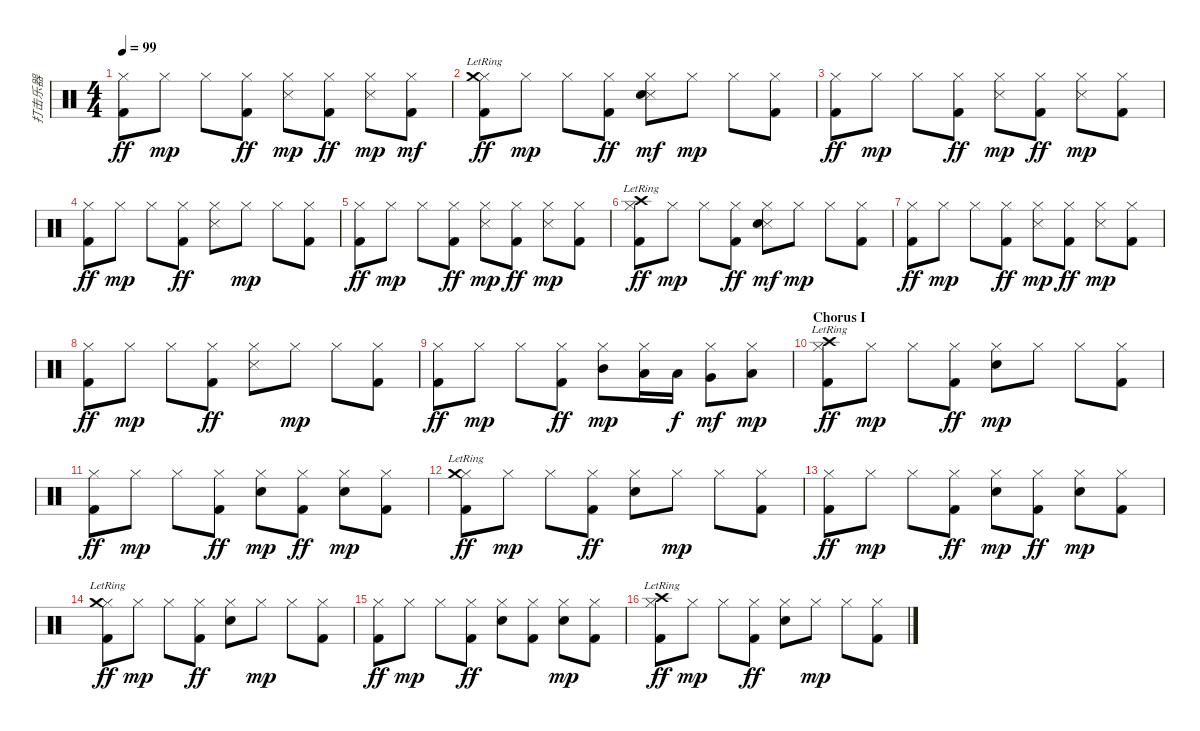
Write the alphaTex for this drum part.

\track ("打击乐器" "打击乐器") {instrument percussion}
\staff {score}
\articulation defaults
\ts (4 4)
\tempo 99
\clef neutral
\ks c
("Hi-Hat (closed)" "Kick (hit) 2").8{dy ff} "Hi-Hat (closed)".8{dy mp} "Hi-Hat (closed)".8 ("Hi-Hat (closed)" "Kick (hit) 2").8{dy ff} ("Hi-Hat (closed)" "Snare (side stick) 3").8{dy mp} ("Hi-Hat (closed)" "Kick (hit) 2").8{dy ff} ("Hi-Hat (closed)" "Snare (side stick) 3").8{dy mp} ("Hi-Hat (closed)" "Kick (hit) 2").8{dy mf} |
("Hi-Hat (closed)" "Crash medium (hit)"{lr} "Kick (hit) 2").8{dy ff} "Hi-Hat (closed)".8{dy mp} "Hi-Hat (closed)".8 ("Hi-Hat (closed)" "Kick (hit) 2").8{dy ff} ("Hi-Hat (closed)" "Snare (side stick) 3" "Electric Snare (hit)").8{dy mf} "Hi-Hat (closed)".8{dy mp} "Hi-Hat (closed)".8 ("Hi-Hat (closed)" "Kick (hit) 2").8 |
("Hi-Hat (closed)" "Kick (hit) 2").8{dy ff} "Hi-Hat (closed)".8{dy mp} "Hi-Hat (closed)".8 ("Hi-Hat (closed)" "Kick (hit) 2").8{dy ff} ("Hi-Hat (closed)" "Snare (side stick) 3").8{dy mp} ("Hi-Hat (closed)" "Kick (hit) 2").8{dy ff} ("Hi-Hat (closed)" "Snare (side stick) 3").8{dy mp} ("Hi-Hat (closed)" "Kick (hit) 2").8 |
("Hi-Hat (closed)" "Kick (hit) 2").8{dy ff} "Hi-Hat (closed)".8{dy mp} "Hi-Hat (closed)".8 ("Hi-Hat (closed)" "Kick (hit) 2").8{dy ff} ("Hi-Hat (closed)" "Snare (side stick) 3").8 "Hi-Hat (closed)".8{dy mp} "Hi-Hat (closed)".8 ("Hi-Hat (closed)" "Kick (hit) 2").8 |
("Hi-Hat (closed)" "Kick (hit) 2").8{dy ff} "Hi-Hat (closed)".8{dy mp} "Hi-Hat (closed)".8 ("Hi-Hat (closed)" "Kick (hit) 2").8{dy ff} ("Hi-Hat (closed)" "Snare (side stick) 3").8{dy mp} ("Hi-Hat (closed)" "Kick (hit) 2").8{dy ff} ("Hi-Hat (closed)" "Snare (side stick) 3").8{dy mp} ("Hi-Hat (closed)" "Kick (hit) 2").8 |
("Hi-Hat (closed)" "Crash high (hit)"{lr} "Kick (hit) 2").8{dy ff} "Hi-Hat (closed)".8{dy mp} "Hi-Hat (closed)".8 ("Hi-Hat (closed)" "Kick (hit) 2").8{dy ff} ("Hi-Hat (closed)" "Snare (side stick) 3" "Electric Snare (hit)").8{dy mf} "Hi-Hat (closed)".8{dy mp} "Hi-Hat (closed)".8 ("Hi-Hat (closed)" "Kick (hit) 2").8 |
("Hi-Hat (closed)" "Kick (hit) 2").8{dy ff} "Hi-Hat (closed)".8{dy mp} "Hi-Hat (closed)".8 ("Hi-Hat (closed)" "Kick (hit) 2").8{dy ff} ("Hi-Hat (closed)" "Snare (side stick) 3").8{dy mp} ("Hi-Hat (closed)" "Kick (hit) 2").8{dy ff} ("Hi-Hat (closed)" "Snare (side stick) 3").8{dy mp} ("Hi-Hat (closed)" "Kick (hit) 2").8 |
("Hi-Hat (closed)" "Kick (hit) 2").8{dy ff} "Hi-Hat (closed)".8{dy mp} "Hi-Hat (closed)".8 ("Hi-Hat (closed)" "Kick (hit) 2").8{dy ff} ("Hi-Hat (closed)" "Snare (side stick) 3").8 "Hi-Hat (closed)".8{dy mp} "Hi-Hat (closed)".8 ("Hi-Hat (closed)" "Kick (hit) 2").8 |
("Hi-Hat (closed)" "Kick (hit) 2").8{dy ff} "Hi-Hat (closed)".8{dy mp} "Hi-Hat (closed)".8 ("Hi-Hat (closed)" "Kick (hit) 2").8{dy ff} ("Hi-Hat (closed)" "Mid Tom (hit)").8{dy mp} ("Hi-Hat (closed)" "Low Tom (hit)").16 "Low Tom (hit)".16{dy f} ("Hi-Hat (closed)" "Very Low Tom (hit)").8{dy mf} ("Hi-Hat (closed)" "Low Floor Tom (hit)").8{dy mp} |
\section ("" "Chorus I")
("Hi-Hat (closed)" "Crash high (hit)"{lr} "Kick (hit) 2").8{dy ff} "Hi-Hat (closed)".8{dy mp} "Hi-Hat (closed)".8 ("Hi-Hat (closed)" "Kick (hit) 2").8{dy ff} ("Hi-Hat (closed)" "Snare (hit) 2").8{dy mp} "Hi-Hat (closed)".8 "Hi-Hat (closed)".8 ("Hi-Hat (closed)" "Kick (hit) 2").8 |
("Hi-Hat (closed)" "Kick (hit) 2").8{dy ff} "Hi-Hat (closed)".8{dy mp} "Hi-Hat (closed)".8 ("Hi-Hat (closed)" "Kick (hit) 2").8{dy ff} ("Hi-Hat (closed)" "Snare (hit) 2").8{dy mp} ("Hi-Hat (closed)" "Kick (hit) 2").8{dy ff} ("Hi-Hat (closed)" "Snare (hit) 2").8{dy mp} ("Hi-Hat (closed)" "Kick (hit) 2").8 |
("Hi-Hat (closed)" "Crash medium (hit)"{lr} "Kick (hit) 2").8{dy ff} "Hi-Hat (closed)".8{dy mp} "Hi-Hat (closed)".8 ("Hi-Hat (closed)" "Kick (hit) 2").8{dy ff} ("Hi-Hat (closed)" "Snare (hit) 2").8 "Hi-Hat (closed)".8{dy mp} "Hi-Hat (closed)".8 ("Hi-Hat (closed)" "Kick (hit) 2").8 |
("Hi-Hat (closed)" "Kick (hit) 2").8{dy ff} "Hi-Hat (closed)".8{dy mp} "Hi-Hat (closed)".8 ("Hi-Hat (closed)" "Kick (hit) 2").8{dy ff} ("Hi-Hat (closed)" "Snare (hit) 2").8{dy mp} ("Hi-Hat (closed)" "Kick (hit) 2").8{dy ff} ("Hi-Hat (closed)" "Snare (hit) 2").8{dy mp} ("Hi-Hat (closed)" "Kick (hit) 2").8 |
("Hi-Hat (closed)" "Crash medium (hit)"{lr} "Kick (hit) 2").8{dy ff} "Hi-Hat (closed)".8{dy mp} "Hi-Hat (closed)".8 ("Hi-Hat (closed)" "Kick (hit) 2").8{dy ff} ("Hi-Hat (closed)" "Snare (hit) 2").8 "Hi-Hat (closed)".8{dy mp} "Hi-Hat (closed)".8 ("Hi-Hat (closed)" "Kick (hit) 2").8 |
("Hi-Hat (closed)" "Kick (hit) 2").8{dy ff} "Hi-Hat (closed)".8{dy mp} "Hi-Hat (closed)".8 ("Hi-Hat (closed)" "Kick (hit) 2").8{dy ff} ("Hi-Hat (closed)" "Snare (hit) 2").8 ("Hi-Hat (closed)" "Kick (hit) 2").8 ("Hi-Hat (closed)" "Snare (hit) 2").8{dy mp} ("Hi-Hat (closed)" "Kick (hit) 2").8 |
("Hi-Hat (closed)" "Crash high (hit)"{lr} "Kick (hit) 2").8{dy ff} "Hi-Hat (closed)".8{dy mp} "Hi-Hat (closed)".8 ("Hi-Hat (closed)" "Kick (hit) 2").8{dy ff} ("Hi-Hat (closed)" "Snare (hit) 2").8 "Hi-Hat (closed)".8{dy mp} "Hi-Hat (closed)".8 ("Hi-Hat (closed)" "Kick (hit) 2").8
